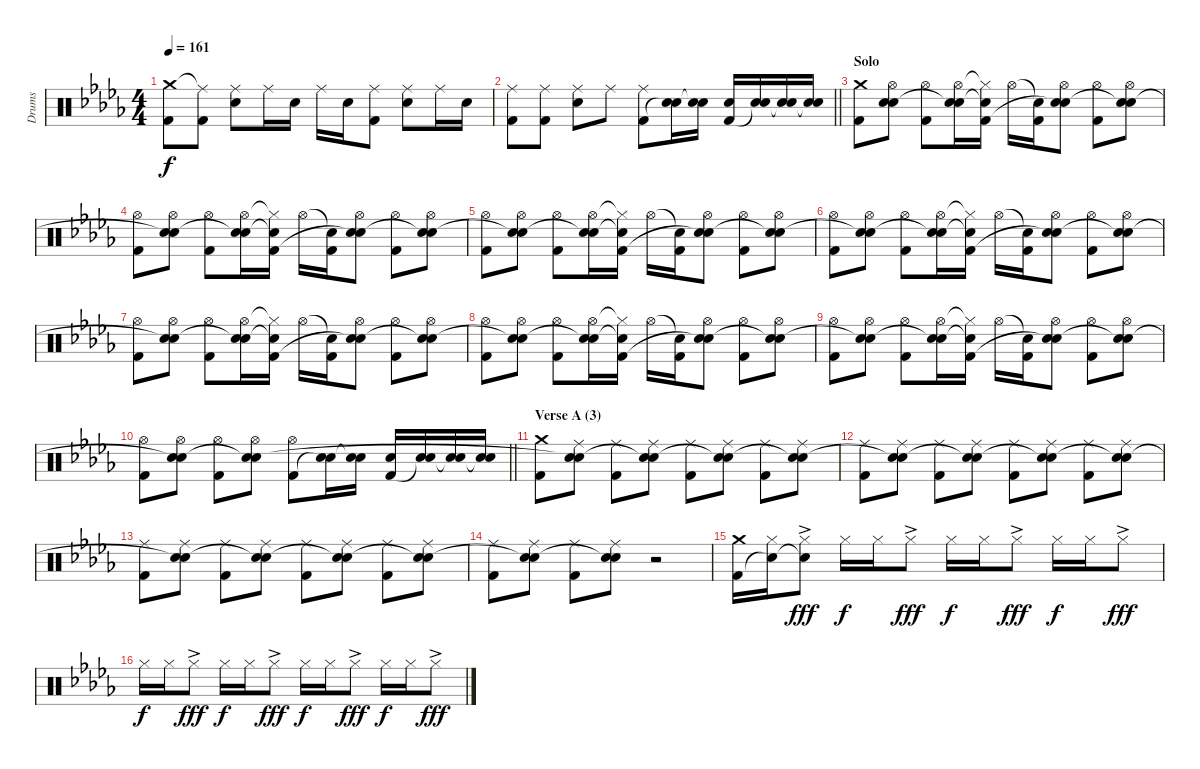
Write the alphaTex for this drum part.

\track ("Drums" "Drums") {instrument percussion}
\staff {score}
\articulation defaults
\ts (4 4)
\tempo 161
\clef neutral
\ks bbminor
("Crash medium (hit)" "Kick (hit) 2").8{dy f} ("Ride (middle)"{t} "Kick (hit) 2").8 ("Ride (middle)" "Electric Snare (hit)").8 "Ride (middle)".16 "Electric Snare (hit)".16 "Ride (middle)".16 "Electric Snare (hit)".16 ("Ride (middle)" "Kick (hit) 2").8 ("Ride (middle)" "Electric Snare (hit)").8 "Ride (middle)".16 "Electric Snare (hit)".16 |
\barLineRight lightlight
("Ride (middle)" "Kick (hit) 2").8 ("Ride (middle)" "Kick (hit) 2").8 ("Ride (middle)" "Electric Snare (hit)").8 "Ride (middle)".8 ("Ride (middle)" "Kick (hit) 2").8 ("Electric Snare (hit)" "Snare (hit)"{t}).16 ("Electric Snare (hit)" "Snare (hit)"{t}).16 ("Electric Snare (hit)" "Kick (hit) 2").16 ("Electric Snare (hit)" "Snare (hit)"{t}).16 ("Electric Snare (hit)" "Snare (hit)"{t}).16 ("Electric Snare (hit)" "Snare (hit)"{t}).16 |
\section ("" "Solo")
("Crash medium (hit)" "Kick (hit) 2").8 ("Hi-Hat (open)" "Electric Snare (hit)" "Snare (hit)").8 ("Hi-Hat (open)" "Kick (hit) 2").8 ("Hi-Hat (open)" "Electric Snare (hit)" "Snare (hit)"{t}).16 ("Hi-Hat (closed)"{t} "Snare (hit)"{t} "Kick (hit) 2").16 "Hi-Hat (open)".16 ("Snare (hit)"{t} "Kick (hit) 2").16 ("Hi-Hat (open)" "Electric Snare (hit)" "Snare (hit)"{t}).8 ("Hi-Hat (open)" "Kick (hit) 2").8 ("Hi-Hat (open)" "Electric Snare (hit)" "Snare (hit)"{t}).8 |
("Hi-Hat (open)" "Kick (hit) 2").8 ("Hi-Hat (open)" "Electric Snare (hit)" "Snare (hit)"{t}).8 ("Hi-Hat (open)" "Kick (hit) 2").8 ("Hi-Hat (open)" "Electric Snare (hit)" "Snare (hit)"{t}).16 ("Hi-Hat (closed)"{t} "Snare (hit)"{t} "Kick (hit) 2").16 "Hi-Hat (open)".16 ("Snare (hit)"{t} "Kick (hit) 2").16 ("Hi-Hat (open)" "Electric Snare (hit)" "Snare (hit)"{t}).8 ("Hi-Hat (open)" "Kick (hit) 2").8 ("Hi-Hat (open)" "Electric Snare (hit)" "Snare (hit)"{t}).8 |
("Hi-Hat (open)" "Kick (hit) 2").8 ("Hi-Hat (open)" "Electric Snare (hit)" "Snare (hit)"{t}).8 ("Hi-Hat (open)" "Kick (hit) 2").8 ("Hi-Hat (open)" "Electric Snare (hit)" "Snare (hit)"{t}).16 ("Hi-Hat (closed)"{t} "Snare (hit)"{t} "Kick (hit) 2").16 "Hi-Hat (open)".16 ("Snare (hit)"{t} "Kick (hit) 2").16 ("Hi-Hat (open)" "Electric Snare (hit)" "Snare (hit)"{t}).8 ("Hi-Hat (open)" "Kick (hit) 2").8 ("Hi-Hat (open)" "Electric Snare (hit)" "Snare (hit)"{t}).8 |
("Hi-Hat (open)" "Kick (hit) 2").8 ("Hi-Hat (open)" "Electric Snare (hit)" "Snare (hit)"{t}).8 ("Hi-Hat (open)" "Kick (hit) 2").8 ("Hi-Hat (open)" "Electric Snare (hit)" "Snare (hit)"{t}).16 ("Hi-Hat (closed)"{t} "Snare (hit)"{t} "Kick (hit) 2").16 "Hi-Hat (open)".16 ("Snare (hit)"{t} "Kick (hit) 2").16 ("Hi-Hat (open)" "Electric Snare (hit)" "Snare (hit)"{t}).8 ("Hi-Hat (open)" "Kick (hit) 2").8 ("Hi-Hat (open)" "Electric Snare (hit)" "Snare (hit)"{t}).8 |
("Hi-Hat (open)" "Kick (hit) 2").8 ("Hi-Hat (open)" "Electric Snare (hit)" "Snare (hit)"{t}).8 ("Hi-Hat (open)" "Kick (hit) 2").8 ("Hi-Hat (open)" "Electric Snare (hit)" "Snare (hit)"{t}).16 ("Hi-Hat (closed)"{t} "Snare (hit)"{t} "Kick (hit) 2").16 "Hi-Hat (open)".16 ("Snare (hit)"{t} "Kick (hit) 2").16 ("Hi-Hat (open)" "Electric Snare (hit)" "Snare (hit)"{t}).8 ("Hi-Hat (open)" "Kick (hit) 2").8 ("Hi-Hat (open)" "Electric Snare (hit)" "Snare (hit)"{t}).8 |
("Hi-Hat (open)" "Kick (hit) 2").8 ("Hi-Hat (open)" "Electric Snare (hit)" "Snare (hit)"{t}).8 ("Hi-Hat (open)" "Kick (hit) 2").8 ("Hi-Hat (open)" "Electric Snare (hit)" "Snare (hit)"{t}).16 ("Hi-Hat (closed)"{t} "Snare (hit)"{t} "Kick (hit) 2").16 "Hi-Hat (open)".16 ("Snare (hit)"{t} "Kick (hit) 2").16 ("Hi-Hat (open)" "Electric Snare (hit)" "Snare (hit)"{t}).8 ("Hi-Hat (open)" "Kick (hit) 2").8 ("Hi-Hat (open)" "Electric Snare (hit)" "Snare (hit)"{t}).8 |
("Hi-Hat (open)" "Kick (hit) 2").8 ("Hi-Hat (open)" "Electric Snare (hit)" "Snare (hit)"{t}).8 ("Hi-Hat (open)" "Kick (hit) 2").8 ("Hi-Hat (open)" "Electric Snare (hit)" "Snare (hit)"{t}).16 ("Hi-Hat (closed)"{t} "Snare (hit)"{t} "Kick (hit) 2").16 "Hi-Hat (open)".16 ("Snare (hit)"{t} "Kick (hit) 2").16 ("Hi-Hat (open)" "Electric Snare (hit)" "Snare (hit)"{t}).8 ("Hi-Hat (open)" "Kick (hit) 2").8 ("Hi-Hat (open)" "Electric Snare (hit)" "Snare (hit)"{t}).8 |
\barLineRight lightlight
("Hi-Hat (open)" "Kick (hit) 2").8 ("Hi-Hat (open)" "Electric Snare (hit)" "Snare (hit)"{t}).8 ("Hi-Hat (open)" "Kick (hit) 2").8 ("Hi-Hat (open)" "Electric Snare (hit)" "Snare (hit)"{t}).8 ("Hi-Hat (open)" "Kick (hit) 2").8 ("Electric Snare (hit)" "Snare (hit)"{t}).16 ("Electric Snare (hit)" "Snare (hit)"{t}).16 ("Electric Snare (hit)" "Kick (hit) 2").16 ("Electric Snare (hit)" "Snare (hit)"{t}).16 ("Electric Snare (hit)" "Snare (hit)"{t}).16 ("Electric Snare (hit)" "Snare (hit)"{t}).16 |
\section ("" "Verse A (3)")
("Crash medium (hit)" "Kick (hit) 2").8 ("Ride (middle)" "Electric Snare (hit)" "Snare (hit)"{t}).8 ("Ride (middle)" "Kick (hit) 2").8 ("Ride (middle)" "Electric Snare (hit)" "Snare (hit)"{t}).8 ("Ride (middle)" "Kick (hit) 2").8 ("Ride (middle)" "Electric Snare (hit)" "Snare (hit)"{t}).8 ("Ride (middle)" "Kick (hit) 2").8 ("Ride (middle)" "Electric Snare (hit)" "Snare (hit)"{t}).8 |
("Ride (middle)" "Kick (hit) 2").8 ("Ride (middle)" "Electric Snare (hit)" "Snare (hit)"{t}).8 ("Ride (middle)" "Kick (hit) 2").8 ("Ride (middle)" "Electric Snare (hit)" "Snare (hit)"{t}).8 ("Ride (middle)" "Kick (hit) 2").8 ("Ride (middle)" "Electric Snare (hit)" "Snare (hit)"{t}).8 ("Ride (middle)" "Kick (hit) 2").8 ("Ride (middle)" "Electric Snare (hit)" "Snare (hit)"{t}).8 |
("Ride (middle)" "Kick (hit) 2").8 ("Ride (middle)" "Electric Snare (hit)" "Snare (hit)"{t}).8 ("Ride (middle)" "Kick (hit) 2").8 ("Ride (middle)" "Electric Snare (hit)" "Snare (hit)"{t}).8 ("Ride (middle)" "Kick (hit) 2").8 ("Ride (middle)" "Electric Snare (hit)" "Snare (hit)"{t}).8 ("Ride (middle)" "Kick (hit) 2").8 ("Ride (middle)" "Electric Snare (hit)" "Snare (hit)"{t}).8 |
("Ride (middle)" "Kick (hit) 2").8 ("Ride (middle)" "Electric Snare (hit)" "Snare (hit)"{t}).8 ("Ride (middle)" "Kick (hit) 2").8 ("Ride (middle)" "Electric Snare (hit)" "Snare (hit)"{t}).8 r.2 |
("Crash medium (hit)" "Kick (hit) 2").16 ("Hi-Hat (closed)" "Snare (hit)"{t}).16 ("Hi-Hat (closed)"{ac} "Snare (hit)"{t}).8{dy fff} "Hi-Hat (closed)".16{dy f} "Hi-Hat (closed)".16 "Hi-Hat (closed)"{ac}.8{dy fff} "Hi-Hat (closed)".16{dy f} "Hi-Hat (closed)".16 "Hi-Hat (closed)"{ac}.8{dy fff} "Hi-Hat (closed)".16{dy f} "Hi-Hat (closed)".16 "Hi-Hat (closed)"{ac}.8{dy fff} |
"Hi-Hat (closed)".16{dy f} "Hi-Hat (closed)".16 "Hi-Hat (closed)"{ac}.8{dy fff} "Hi-Hat (closed)".16{dy f} "Hi-Hat (closed)".16 "Hi-Hat (closed)"{ac}.8{dy fff} "Hi-Hat (closed)".16{dy f} "Hi-Hat (closed)".16 "Hi-Hat (closed)"{ac}.8{dy fff} "Hi-Hat (closed)".16{dy f} "Hi-Hat (closed)".16 "Hi-Hat (closed)"{ac}.8{dy fff}
